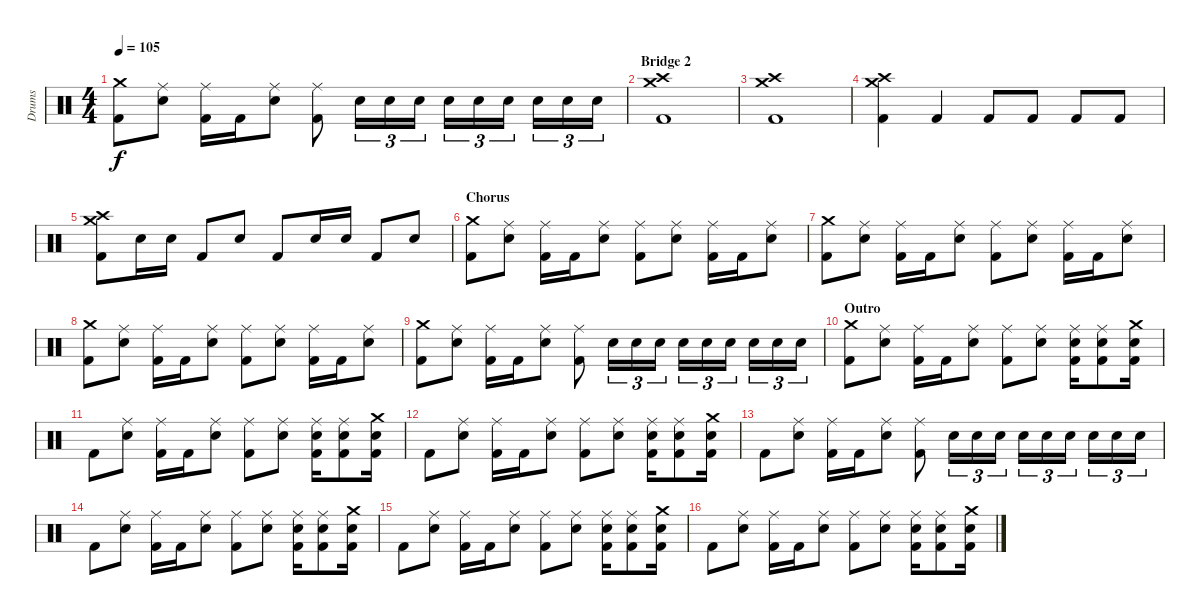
\track ("Drums" "Drums") {instrument percussion}
\staff {score}
\articulation defaults
\ts (4 4)
\tempo 105
\clef neutral
\ks c
("Crash medium (hit)" "Kick (hit) 2").8{dy f} ("Ride (middle)" "Electric Snare (hit)").8 ("Ride (middle)" "Kick (hit) 2").16 "Kick (hit) 2".16 ("Ride (middle)" "Electric Snare (hit)").8 ("Ride (middle)" "Kick (hit) 2").8 "Electric Snare (hit)".16{tu (3 2)} "Electric Snare (hit)".16{tu (3 2)} "Electric Snare (hit)".16{tu (3 2)} "Electric Snare (hit)".16{tu (3 2)} "Electric Snare (hit)".16{tu (3 2)} "Electric Snare (hit)".16{tu (3 2)} "Electric Snare (hit)".16{tu (3 2)} "Electric Snare (hit)".16{tu (3 2)} "Electric Snare (hit)".16{tu (3 2)} |
\section ("" "Bridge 2")
("Crash high (hit)" "Crash medium (hit)" "Kick (hit) 2").1 |
("Crash high (hit)" "Crash medium (hit)" "Kick (hit) 2").1 |
("Crash high (hit)" "Crash medium (hit)" "Kick (hit) 2").4 "Kick (hit) 2".4 "Kick (hit) 2".8 "Kick (hit) 2".8 "Kick (hit) 2".8 "Kick (hit) 2".8 |
("Crash high (hit)" "Crash medium (hit)" "Kick (hit) 2").8 "Electric Snare (hit)".16 "Electric Snare (hit)".16 "Kick (hit) 2".8 "Electric Snare (hit)".8 "Kick (hit) 2".8 "Electric Snare (hit)".16 "Electric Snare (hit)".16 "Kick (hit) 2".8 "Electric Snare (hit)".8 |
\section ("" "Chorus")
("Crash medium (hit)" "Kick (hit) 2").8 ("Ride (middle)" "Electric Snare (hit)").8 ("Ride (middle)" "Kick (hit) 2").16 "Kick (hit) 2".16 ("Ride (middle)" "Electric Snare (hit)").8 ("Ride (middle)" "Kick (hit) 2").8 ("Ride (middle)" "Electric Snare (hit)").8 ("Ride (middle)" "Kick (hit) 2").16 "Kick (hit) 2".16 ("Ride (middle)" "Electric Snare (hit)").8 |
("Crash medium (hit)" "Kick (hit) 2").8 ("Ride (middle)" "Electric Snare (hit)").8 ("Ride (middle)" "Kick (hit) 2").16 "Kick (hit) 2".16 ("Ride (middle)" "Electric Snare (hit)").8 ("Ride (middle)" "Kick (hit) 2").8 ("Ride (middle)" "Electric Snare (hit)").8 ("Ride (middle)" "Kick (hit) 2").16 "Kick (hit) 2".16 ("Ride (middle)" "Electric Snare (hit)").8 |
("Crash medium (hit)" "Kick (hit) 2").8 ("Ride (middle)" "Electric Snare (hit)").8 ("Ride (middle)" "Kick (hit) 2").16 "Kick (hit) 2".16 ("Ride (middle)" "Electric Snare (hit)").8 ("Ride (middle)" "Kick (hit) 2").8 ("Ride (middle)" "Electric Snare (hit)").8 ("Ride (middle)" "Kick (hit) 2").16 "Kick (hit) 2".16 ("Ride (middle)" "Electric Snare (hit)").8 |
("Crash medium (hit)" "Kick (hit) 2").8 ("Ride (middle)" "Electric Snare (hit)").8 ("Ride (middle)" "Kick (hit) 2").16 "Kick (hit) 2".16 ("Ride (middle)" "Electric Snare (hit)").8 ("Ride (middle)" "Kick (hit) 2").8 "Electric Snare (hit)".16{tu (3 2)} "Electric Snare (hit)".16{tu (3 2)} "Electric Snare (hit)".16{tu (3 2)} "Electric Snare (hit)".16{tu (3 2)} "Electric Snare (hit)".16{tu (3 2)} "Electric Snare (hit)".16{tu (3 2)} "Electric Snare (hit)".16{tu (3 2)} "Electric Snare (hit)".16{tu (3 2)} "Electric Snare (hit)".16{tu (3 2)} |
\section ("" "Outro")
("Crash medium (hit)" "Kick (hit) 2").8 ("Ride (middle)" "Electric Snare (hit)").8 ("Ride (middle)" "Kick (hit) 2").16 "Kick (hit) 2".16 ("Ride (middle)" "Electric Snare (hit)").8 ("Ride (middle)" "Kick (hit) 2").8 ("Ride (middle)" "Electric Snare (hit)").8 ("Ride (middle)" "Electric Snare (hit)" "Kick (hit) 2").16 ("Ride (middle)" "Electric Snare (hit)" "Kick (hit) 2").8 ("Crash medium (hit)" "Electric Snare (hit)" "Kick (hit) 2").16 |
"Kick (hit) 2".8 ("Ride (middle)" "Electric Snare (hit)").8 ("Ride (middle)" "Kick (hit) 2").16 "Kick (hit) 2".16 ("Ride (middle)" "Electric Snare (hit)").8 ("Ride (middle)" "Kick (hit) 2").8 ("Ride (middle)" "Electric Snare (hit)").8 ("Ride (middle)" "Electric Snare (hit)" "Kick (hit) 2").16 ("Ride (middle)" "Electric Snare (hit)" "Kick (hit) 2").8 ("Crash medium (hit)" "Electric Snare (hit)" "Kick (hit) 2").16 |
"Kick (hit) 2".8 ("Ride (middle)" "Electric Snare (hit)").8 ("Ride (middle)" "Kick (hit) 2").16 "Kick (hit) 2".16 ("Ride (middle)" "Electric Snare (hit)").8 ("Ride (middle)" "Kick (hit) 2").8 ("Ride (middle)" "Electric Snare (hit)").8 ("Ride (middle)" "Electric Snare (hit)" "Kick (hit) 2").16 ("Ride (middle)" "Electric Snare (hit)" "Kick (hit) 2").8 ("Crash medium (hit)" "Electric Snare (hit)" "Kick (hit) 2").16 |
"Kick (hit) 2".8 ("Ride (middle)" "Electric Snare (hit)").8 ("Ride (middle)" "Kick (hit) 2").16 "Kick (hit) 2".16 ("Ride (middle)" "Electric Snare (hit)").8 ("Ride (middle)" "Kick (hit) 2").8 "Electric Snare (hit)".16{tu (3 2)} "Electric Snare (hit)".16{tu (3 2)} "Electric Snare (hit)".16{tu (3 2)} "Electric Snare (hit)".16{tu (3 2)} "Electric Snare (hit)".16{tu (3 2)} "Electric Snare (hit)".16{tu (3 2)} "Electric Snare (hit)".16{tu (3 2)} "Electric Snare (hit)".16{tu (3 2)} "Electric Snare (hit)".16{tu (3 2)} |
"Kick (hit) 2".8 ("Ride (middle)" "Electric Snare (hit)").8 ("Ride (middle)" "Kick (hit) 2").16 "Kick (hit) 2".16 ("Ride (middle)" "Electric Snare (hit)").8 ("Ride (middle)" "Kick (hit) 2").8 ("Ride (middle)" "Electric Snare (hit)").8 ("Ride (middle)" "Electric Snare (hit)" "Kick (hit) 2").16 ("Ride (middle)" "Electric Snare (hit)" "Kick (hit) 2").8 ("Crash medium (hit)" "Electric Snare (hit)" "Kick (hit) 2").16 |
"Kick (hit) 2".8 ("Ride (middle)" "Electric Snare (hit)").8 ("Ride (middle)" "Kick (hit) 2").16 "Kick (hit) 2".16 ("Ride (middle)" "Electric Snare (hit)").8 ("Ride (middle)" "Kick (hit) 2").8 ("Ride (middle)" "Electric Snare (hit)").8 ("Ride (middle)" "Electric Snare (hit)" "Kick (hit) 2").16 ("Ride (middle)" "Electric Snare (hit)" "Kick (hit) 2").8 ("Crash medium (hit)" "Electric Snare (hit)" "Kick (hit) 2").16 |
"Kick (hit) 2".8 ("Ride (middle)" "Electric Snare (hit)").8 ("Ride (middle)" "Kick (hit) 2").16 "Kick (hit) 2".16 ("Ride (middle)" "Electric Snare (hit)").8 ("Ride (middle)" "Kick (hit) 2").8 ("Ride (middle)" "Electric Snare (hit)").8 ("Ride (middle)" "Electric Snare (hit)" "Kick (hit) 2").16 ("Ride (middle)" "Electric Snare (hit)" "Kick (hit) 2").8 ("Crash medium (hit)" "Electric Snare (hit)" "Kick (hit) 2").16
